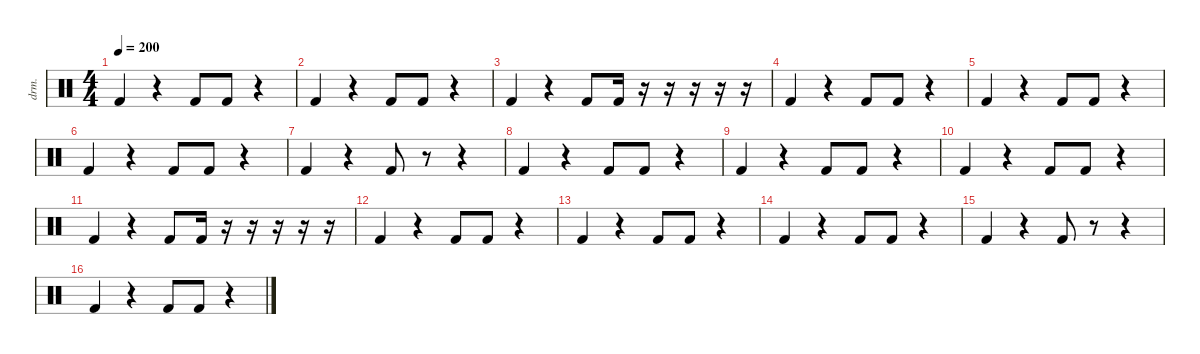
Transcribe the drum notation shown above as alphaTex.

\defaultSystemsLayout 4
\hideDynamics
\bracketExtendMode nobrackets
\track ("Percussion" "drm.") {instrument percussion}
\staff {score}
\articulation defaults
\ts (4 4)
\tempo 200
\clef neutral
\ks c "Kick (hit) 2".4{dy f}
r.4 "Kick (hit) 2".8 "Kick (hit) 2".8 r.4 |
"Kick (hit) 2".4 r.4 "Kick (hit) 2".8 "Kick (hit) 2".8 r.4 |
"Kick (hit) 2".4 r.4 "Kick (hit) 2".8 "Kick (hit) 2".16 r.16 r.16 r.16 r.16 r.16 |
"Kick (hit) 2".4 r.4 "Kick (hit) 2".8 "Kick (hit) 2".8 r.4 |
"Kick (hit) 2".4 r.4 "Kick (hit) 2".8 "Kick (hit) 2".8 r.4 |
"Kick (hit) 2".4 r.4 "Kick (hit) 2".8 "Kick (hit) 2".8 r.4 |
"Kick (hit) 2".4 r.4 "Kick (hit) 2".8 r.8 r.4 |
"Kick (hit) 2".4 r.4 "Kick (hit) 2".8 "Kick (hit) 2".8 r.4 |
"Kick (hit) 2".4 r.4 "Kick (hit) 2".8 "Kick (hit) 2".8 r.4 |
"Kick (hit) 2".4 r.4 "Kick (hit) 2".8 "Kick (hit) 2".8 r.4 |
"Kick (hit) 2".4 r.4 "Kick (hit) 2".8 "Kick (hit) 2".16 r.16 r.16 r.16 r.16 r.16 |
"Kick (hit) 2".4 r.4 "Kick (hit) 2".8 "Kick (hit) 2".8 r.4 |
"Kick (hit) 2".4 r.4 "Kick (hit) 2".8 "Kick (hit) 2".8 r.4 |
"Kick (hit) 2".4 r.4 "Kick (hit) 2".8 "Kick (hit) 2".8 r.4 |
"Kick (hit) 2".4 r.4 "Kick (hit) 2".8 r.8 r.4 |
"Kick (hit) 2".4 r.4 "Kick (hit) 2".8 "Kick (hit) 2".8 r.4
